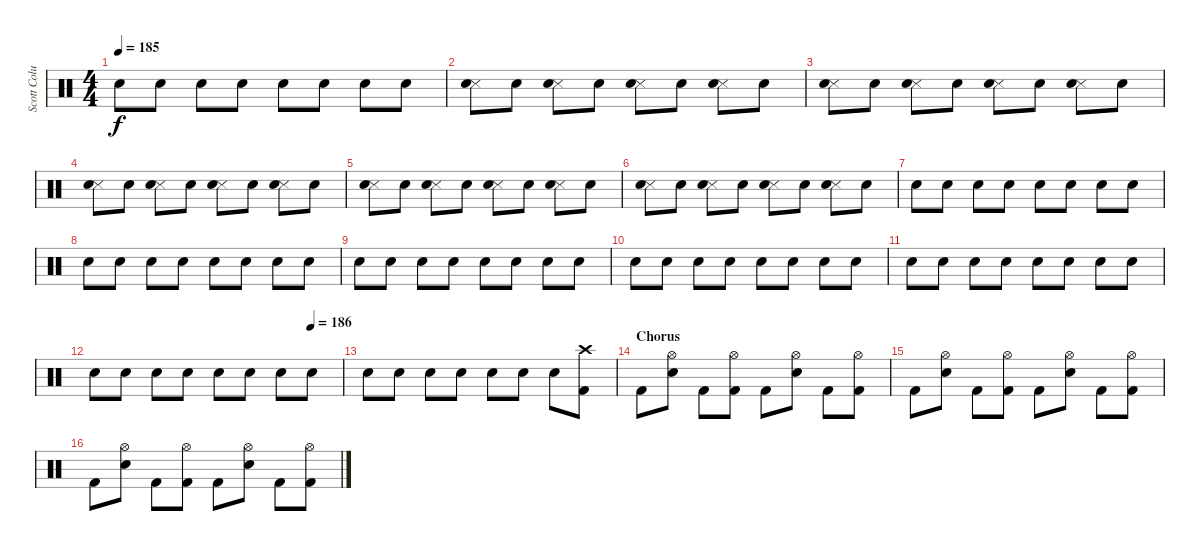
\track ("Scott Columbus" "Scott Colu") {instrument percussion}
\staff {score}
\articulation defaults
\ts (4 4)
\tempo 185
\clef neutral
\ks c "Electric Snare (hit)".8{dy f} "Electric Snare (hit)".8 "Electric Snare (hit)".8 "Electric Snare (hit)".8 "Electric Snare (hit)".8 "Electric Snare (hit)".8 "Electric Snare (hit)".8 "Electric Snare (hit)".8
|
("Snare (side stick) 3" "Electric Snare (hit)").8 "Electric Snare (hit)".8 ("Snare (side stick) 3" "Electric Snare (hit)").8 "Electric Snare (hit)".8 ("Snare (side stick) 3" "Electric Snare (hit)").8 "Electric Snare (hit)".8 ("Snare (side stick) 3" "Electric Snare (hit)").8 "Electric Snare (hit)".8 |
("Snare (side stick) 3" "Electric Snare (hit)").8 "Electric Snare (hit)".8 ("Snare (side stick) 3" "Electric Snare (hit)").8 "Electric Snare (hit)".8 ("Snare (side stick) 3" "Electric Snare (hit)").8 "Electric Snare (hit)".8 ("Snare (side stick) 3" "Electric Snare (hit)").8 "Electric Snare (hit)".8 |
("Snare (side stick) 3" "Electric Snare (hit)").8 "Electric Snare (hit)".8 ("Snare (side stick) 3" "Electric Snare (hit)").8 "Electric Snare (hit)".8 ("Snare (side stick) 3" "Electric Snare (hit)").8 "Electric Snare (hit)".8 ("Snare (side stick) 3" "Electric Snare (hit)").8 "Electric Snare (hit)".8 |
("Snare (side stick) 3" "Electric Snare (hit)").8 "Electric Snare (hit)".8 ("Snare (side stick) 3" "Electric Snare (hit)").8 "Electric Snare (hit)".8 ("Snare (side stick) 3" "Electric Snare (hit)").8 "Electric Snare (hit)".8 ("Snare (side stick) 3" "Electric Snare (hit)").8 "Electric Snare (hit)".8 |
("Snare (side stick) 3" "Electric Snare (hit)").8 "Electric Snare (hit)".8 ("Snare (side stick) 3" "Electric Snare (hit)").8 "Electric Snare (hit)".8 ("Snare (side stick) 3" "Electric Snare (hit)").8 "Electric Snare (hit)".8 ("Snare (side stick) 3" "Electric Snare (hit)").8 "Electric Snare (hit)".8 |
"Electric Snare (hit)".8 "Electric Snare (hit)".8 "Electric Snare (hit)".8 "Electric Snare (hit)".8 "Electric Snare (hit)".8 "Electric Snare (hit)".8 "Electric Snare (hit)".8 "Electric Snare (hit)".8 |
"Electric Snare (hit)".8 "Electric Snare (hit)".8 "Electric Snare (hit)".8 "Electric Snare (hit)".8 "Electric Snare (hit)".8 "Electric Snare (hit)".8 "Electric Snare (hit)".8 "Electric Snare (hit)".8 |
"Electric Snare (hit)".8 "Electric Snare (hit)".8 "Electric Snare (hit)".8 "Electric Snare (hit)".8 "Electric Snare (hit)".8 "Electric Snare (hit)".8 "Electric Snare (hit)".8 "Electric Snare (hit)".8 |
"Electric Snare (hit)".8 "Electric Snare (hit)".8 "Electric Snare (hit)".8 "Electric Snare (hit)".8 "Electric Snare (hit)".8 "Electric Snare (hit)".8 "Electric Snare (hit)".8 "Electric Snare (hit)".8 |
"Electric Snare (hit)".8 "Electric Snare (hit)".8 "Electric Snare (hit)".8 "Electric Snare (hit)".8 "Electric Snare (hit)".8 "Electric Snare (hit)".8 "Electric Snare (hit)".8 "Electric Snare (hit)".8 |
\tempo (186 0.875)
"Electric Snare (hit)".8 "Electric Snare (hit)".8 "Electric Snare (hit)".8 "Electric Snare (hit)".8 "Electric Snare (hit)".8 "Electric Snare (hit)".8 "Electric Snare (hit)".8 "Snare (hit) 2".8{volume 10} |
"Snare (hit) 2".8 "Snare (hit) 2".8 "Snare (hit) 2".8 "Snare (hit) 2".8 "Snare (hit) 2".8 "Snare (hit) 2".8 "Snare (hit) 2".8 ("Crash high (hit)" "Kick (hit) 2").8 |
\section ("" "Chorus")
"Kick (hit) 2".8 ("Hi-Hat (open)" "Snare (hit) 2").8 "Kick (hit) 2".8 ("Hi-Hat (open)" "Kick (hit) 2").8 "Kick (hit) 2".8 ("Hi-Hat (open)" "Snare (hit) 2").8 "Kick (hit) 2".8 ("Hi-Hat (open)" "Kick (hit) 2").8 |
"Kick (hit) 2".8 ("Hi-Hat (open)" "Snare (hit) 2").8 "Kick (hit) 2".8 ("Hi-Hat (open)" "Kick (hit) 2").8 "Kick (hit) 2".8 ("Hi-Hat (open)" "Snare (hit) 2").8 "Kick (hit) 2".8 ("Hi-Hat (open)" "Kick (hit) 2").8 |
"Kick (hit) 2".8 ("Hi-Hat (open)" "Snare (hit) 2").8 "Kick (hit) 2".8 ("Hi-Hat (open)" "Kick (hit) 2").8 "Kick (hit) 2".8 ("Hi-Hat (open)" "Snare (hit) 2").8 "Kick (hit) 2".8 ("Hi-Hat (open)" "Kick (hit) 2").8
